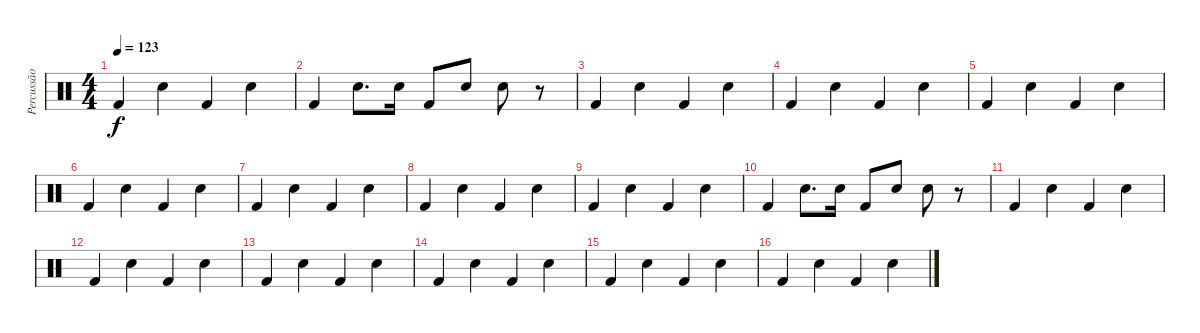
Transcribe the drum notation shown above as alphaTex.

\track ("Percussão" "Percussão") {instrument percussion}
\staff {score}
\articulation defaults
\ts (4 4)
\tempo 123
\clef neutral
\ks c "Kick (hit) 2".4{dy f} "Snare (hit) 2".4 "Kick (hit) 2".4 "Snare (hit) 2".4
|
"Kick (hit) 2".4 "Snare (hit) 2".8{d} "Snare (hit) 2".16 "Kick (hit) 2".8 "Snare (hit) 2".8 "Snare (hit) 2".8 r.8 |
"Kick (hit) 2".4 "Snare (hit) 2".4 "Kick (hit) 2".4 "Snare (hit) 2".4 |
"Kick (hit) 2".4 "Snare (hit) 2".4 "Kick (hit) 2".4 "Snare (hit) 2".4 |
"Kick (hit) 2".4 "Snare (hit) 2".4 "Kick (hit) 2".4 "Snare (hit) 2".4 |
"Kick (hit) 2".4 "Snare (hit) 2".4 "Kick (hit) 2".4 "Snare (hit) 2".4 |
"Kick (hit) 2".4 "Snare (hit) 2".4 "Kick (hit) 2".4 "Snare (hit) 2".4 |
"Kick (hit) 2".4 "Snare (hit) 2".4 "Kick (hit) 2".4 "Snare (hit) 2".4 |
"Kick (hit) 2".4 "Snare (hit) 2".4 "Kick (hit) 2".4 "Snare (hit) 2".4 |
"Kick (hit) 2".4 "Snare (hit) 2".8{d} "Snare (hit) 2".16 "Kick (hit) 2".8 "Snare (hit) 2".8 "Snare (hit) 2".8 r.8 |
"Kick (hit) 2".4 "Snare (hit) 2".4 "Kick (hit) 2".4 "Snare (hit) 2".4 |
"Kick (hit) 2".4 "Snare (hit) 2".4 "Kick (hit) 2".4 "Snare (hit) 2".4 |
"Kick (hit) 2".4 "Snare (hit) 2".4 "Kick (hit) 2".4 "Snare (hit) 2".4 |
"Kick (hit) 2".4 "Snare (hit) 2".4 "Kick (hit) 2".4 "Snare (hit) 2".4 |
"Kick (hit) 2".4 "Snare (hit) 2".4 "Kick (hit) 2".4 "Snare (hit) 2".4 |
"Kick (hit) 2".4 "Snare (hit) 2".4 "Kick (hit) 2".4 "Snare (hit) 2".4
